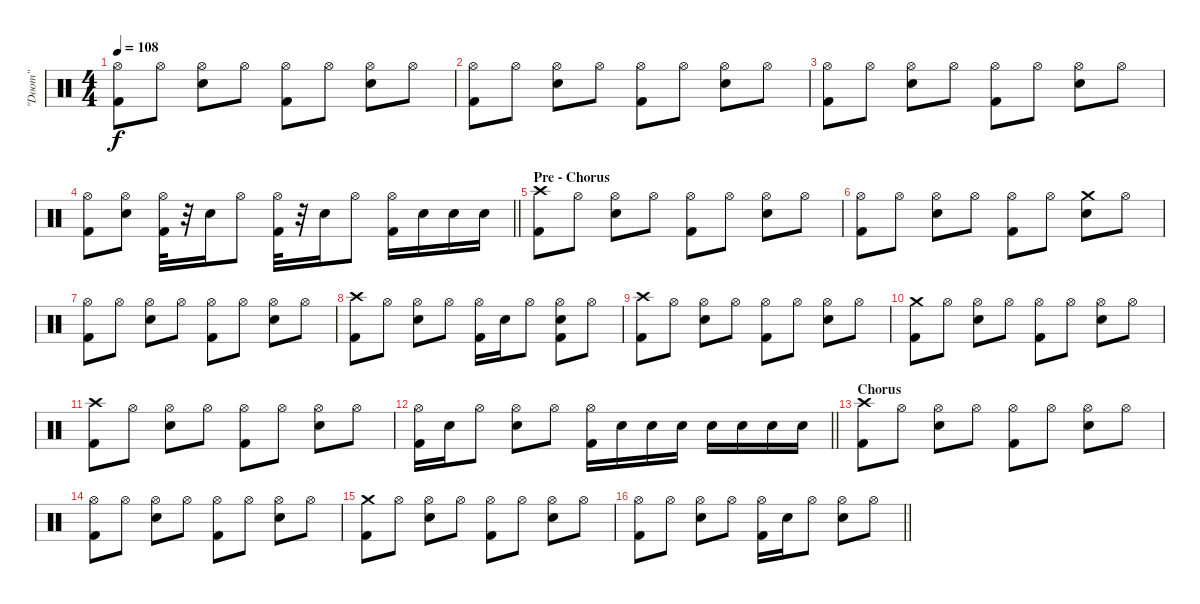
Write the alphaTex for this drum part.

\track ("\"Doom\"" "\"Doom\"") {instrument percussion}
\staff {score}
\articulation defaults
\ts (4 4)
\tempo 108
\clef neutral
\ks c
("Hi-Hat (open)" "Kick (hit) 2").8{dy f} "Hi-Hat (open)".8 ("Hi-Hat (open)" "Snare (hit) 2").8 "Hi-Hat (open)".8 ("Hi-Hat (open)" "Kick (hit) 2").8 "Hi-Hat (open)".8 ("Hi-Hat (open)" "Snare (hit) 2").8 "Hi-Hat (open)".8 |
("Hi-Hat (open)" "Kick (hit) 2").8 "Hi-Hat (open)".8 ("Hi-Hat (open)" "Snare (hit) 2").8 "Hi-Hat (open)".8 ("Hi-Hat (open)" "Kick (hit) 2").8 "Hi-Hat (open)".8 ("Hi-Hat (open)" "Snare (hit) 2").8 "Hi-Hat (open)".8 |
("Hi-Hat (open)" "Kick (hit) 2").8 "Hi-Hat (open)".8 ("Hi-Hat (open)" "Snare (hit) 2").8 "Hi-Hat (open)".8 ("Hi-Hat (open)" "Kick (hit) 2").8 "Hi-Hat (open)".8 ("Hi-Hat (open)" "Snare (hit) 2").8 "Hi-Hat (open)".8 |
\barLineRight lightlight
("Hi-Hat (open)" "Kick (hit) 2").8 ("Hi-Hat (open)" "Snare (hit) 2").8 ("Hi-Hat (open)" "Kick (hit) 2").32 r.32 "Snare (hit) 2".16 "Hi-Hat (open)".8 ("Hi-Hat (open)" "Kick (hit) 2").32 r.32 "Snare (hit) 2".16 "Hi-Hat (open)".8 ("Hi-Hat (open)" "Kick (hit) 2").16 "Snare (hit) 2".16 "Snare (hit) 2".16 "Snare (hit) 2".16 |
\section ("" "Pre - Chorus")
("Crash high (hit)" "Kick (hit) 2").8 "Hi-Hat (open)".8 ("Hi-Hat (open)" "Snare (hit) 2").8 "Hi-Hat (open)".8 ("Hi-Hat (open)" "Kick (hit) 2").8 "Hi-Hat (open)".8 ("Hi-Hat (open)" "Snare (hit) 2").8 "Hi-Hat (open)".8 |
("Hi-Hat (open)" "Kick (hit) 2").8 "Hi-Hat (open)".8 ("Hi-Hat (open)" "Snare (hit) 2").8 "Hi-Hat (open)".8 ("Hi-Hat (open)" "Kick (hit) 2").8 "Hi-Hat (open)".8 ("Crash medium (hit)" "Snare (hit) 2").8 "Hi-Hat (open)".8 |
("Hi-Hat (open)" "Kick (hit) 2").8 "Hi-Hat (open)".8 ("Hi-Hat (open)" "Snare (hit) 2").8 "Hi-Hat (open)".8 ("Hi-Hat (open)" "Kick (hit) 2").8 "Hi-Hat (open)".8 ("Hi-Hat (open)" "Snare (hit) 2").8 "Hi-Hat (open)".8 |
("Crash high (hit)" "Kick (hit) 2").8 "Hi-Hat (open)".8 ("Hi-Hat (open)" "Snare (hit) 2").8 "Hi-Hat (open)".8 ("Hi-Hat (open)" "Kick (hit) 2").16 "Snare (hit) 2".16 "Hi-Hat (open)".8 ("Hi-Hat (open)" "Snare (hit) 2" "Kick (hit) 2").8 "Hi-Hat (open)".8 |
("Crash high (hit)" "Kick (hit) 2").8 "Hi-Hat (open)".8 ("Hi-Hat (open)" "Snare (hit) 2").8 "Hi-Hat (open)".8 ("Hi-Hat (open)" "Kick (hit) 2").8 "Hi-Hat (open)".8 ("Hi-Hat (open)" "Snare (hit) 2").8 "Hi-Hat (open)".8 |
("Crash medium (hit)" "Kick (hit) 2").8 "Hi-Hat (open)".8 ("Hi-Hat (open)" "Snare (hit) 2").8 "Hi-Hat (open)".8 ("Hi-Hat (open)" "Kick (hit) 2").8 "Hi-Hat (open)".8 ("Hi-Hat (open)" "Snare (hit) 2").8 "Hi-Hat (open)".8 |
("Crash high (hit)" "Kick (hit) 2").8 "Hi-Hat (open)".8 ("Hi-Hat (open)" "Snare (hit) 2").8 "Hi-Hat (open)".8 ("Hi-Hat (open)" "Kick (hit) 2").8 "Hi-Hat (open)".8 ("Hi-Hat (open)" "Snare (hit) 2").8 "Hi-Hat (open)".8 |
\barLineRight lightlight
("Hi-Hat (open)" "Kick (hit) 2").16 "Snare (hit) 2".16 "Hi-Hat (open)".8 ("Hi-Hat (open)" "Snare (hit) 2").8 "Hi-Hat (open)".8 ("Hi-Hat (open)" "Kick (hit) 2").16 "Snare (hit) 2".16 "Snare (hit) 2".16 "Snare (hit) 2".16 "Snare (hit) 2".16 "Snare (hit) 2".16 "Snare (hit) 2".16 "Snare (hit) 2".16 |
\section ("" "Chorus")
("Crash high (hit)" "Kick (hit) 2").8 "Hi-Hat (open)".8 ("Hi-Hat (open)" "Snare (hit) 2").8 "Hi-Hat (open)".8 ("Hi-Hat (open)" "Kick (hit) 2").8 "Hi-Hat (open)".8 ("Hi-Hat (open)" "Snare (hit) 2").8 "Hi-Hat (open)".8 |
("Hi-Hat (open)" "Kick (hit) 2").8 "Hi-Hat (open)".8 ("Hi-Hat (open)" "Snare (hit) 2").8 "Hi-Hat (open)".8 ("Hi-Hat (open)" "Kick (hit) 2").8 "Hi-Hat (open)".8 ("Hi-Hat (open)" "Snare (hit) 2").8 "Hi-Hat (open)".8 |
("Crash medium (hit)" "Kick (hit) 2").8 "Hi-Hat (open)".8 ("Hi-Hat (open)" "Snare (hit) 2").8 "Hi-Hat (open)".8 ("Hi-Hat (open)" "Kick (hit) 2").8 "Hi-Hat (open)".8 ("Hi-Hat (open)" "Snare (hit) 2").8 "Hi-Hat (open)".8 |
\barLineRight lightlight
("Hi-Hat (open)" "Kick (hit) 2").8 "Hi-Hat (open)".8 ("Hi-Hat (open)" "Snare (hit) 2").8 "Hi-Hat (open)".8 ("Hi-Hat (open)" "Kick (hit) 2").16 "Snare (hit) 2".16 "Hi-Hat (open)".8 ("Hi-Hat (open)" "Snare (hit) 2").8 "Hi-Hat (open)".8
